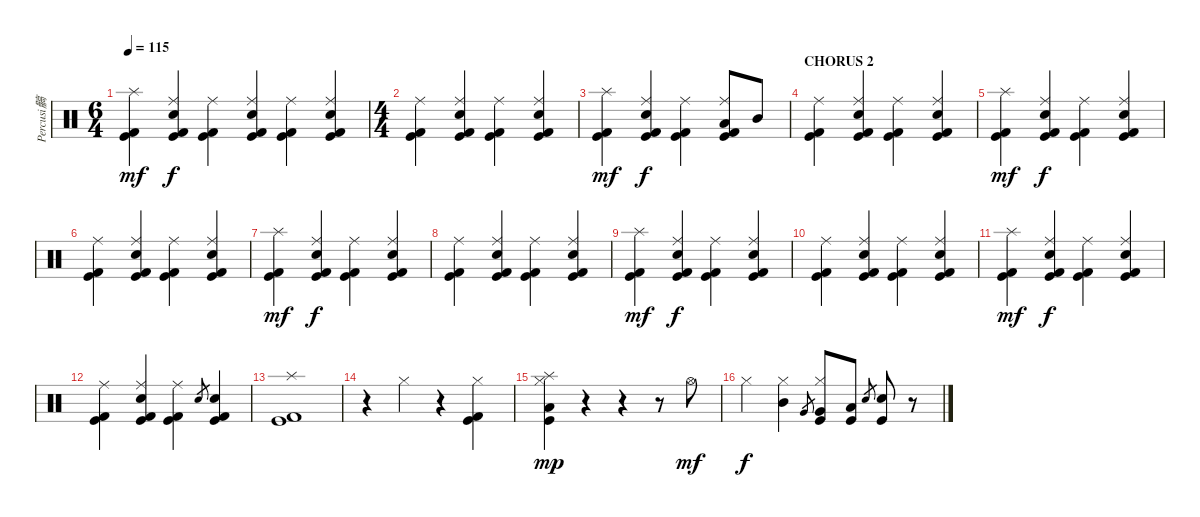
\track ("Percusi髇" "Percusi髇") {instrument percussion}
\staff {score}
\articulation defaults
\ts (6 4)
\tempo 115
\clef neutral
\ks c
("Splash (hit)" "Kick (hit) 2" "Kick (hit)").4{dy mf} ("Ride (middle)" "Electric Snare (hit)" "Kick (hit) 2" "Kick (hit)").4{dy f} ("Ride (middle)" "Kick (hit) 2" "Kick (hit)").4 ("Ride (middle)" "Electric Snare (hit)" "Kick (hit) 2" "Kick (hit)").4 ("Ride (middle)" "Kick (hit) 2" "Kick (hit)").4 ("Ride (middle)" "Electric Snare (hit)" "Kick (hit) 2" "Kick (hit)").4 |
\ts (4 4)
("Ride (middle)" "Kick (hit) 2" "Kick (hit)").4 ("Ride (middle)" "Electric Snare (hit)" "Kick (hit) 2" "Kick (hit)").4 ("Ride (middle)" "Kick (hit) 2" "Kick (hit)").4 ("Ride (middle)" "Electric Snare (hit)" "Kick (hit) 2" "Kick (hit)").4 |
("Splash (hit)" "Kick (hit) 2" "Kick (hit)").4{dy mf} ("Ride (middle)" "Electric Snare (hit)" "Kick (hit) 2" "Kick (hit)").4{dy f} ("Ride (middle)" "Kick (hit) 2" "Kick (hit)").4 ("Ride (middle)" "Low Tom (hit)" "Kick (hit) 2" "Kick (hit)").8 "Mid Tom (hit)".8 |
\section ("" "CHORUS 2")
("Ride (middle)" "Kick (hit) 2" "Kick (hit)").4 ("Ride (middle)" "Electric Snare (hit)" "Kick (hit) 2" "Kick (hit)").4 ("Ride (middle)" "Kick (hit) 2" "Kick (hit)").4 ("Ride (middle)" "Electric Snare (hit)" "Kick (hit) 2" "Kick (hit)").4 |
("Splash (hit)" "Kick (hit) 2" "Kick (hit)").4{dy mf} ("Ride (middle)" "Electric Snare (hit)" "Kick (hit) 2" "Kick (hit)").4{dy f} ("Ride (middle)" "Kick (hit) 2" "Kick (hit)").4 ("Ride (middle)" "Electric Snare (hit)" "Kick (hit) 2" "Kick (hit)").4 |
("Ride (middle)" "Kick (hit) 2" "Kick (hit)").4 ("Ride (middle)" "Electric Snare (hit)" "Kick (hit) 2" "Kick (hit)").4 ("Ride (middle)" "Kick (hit) 2" "Kick (hit)").4 ("Ride (middle)" "Electric Snare (hit)" "Kick (hit) 2" "Kick (hit)").4 |
("Splash (hit)" "Kick (hit) 2" "Kick (hit)").4{dy mf} ("Ride (middle)" "Electric Snare (hit)" "Kick (hit) 2" "Kick (hit)").4{dy f} ("Ride (middle)" "Kick (hit) 2" "Kick (hit)").4 ("Ride (middle)" "Electric Snare (hit)" "Kick (hit) 2" "Kick (hit)").4 |
("Ride (middle)" "Kick (hit) 2" "Kick (hit)").4 ("Ride (middle)" "Electric Snare (hit)" "Kick (hit) 2" "Kick (hit)").4 ("Ride (middle)" "Kick (hit) 2" "Kick (hit)").4 ("Ride (middle)" "Electric Snare (hit)" "Kick (hit) 2" "Kick (hit)").4 |
("Splash (hit)" "Kick (hit) 2" "Kick (hit)").4{dy mf} ("Ride (middle)" "Electric Snare (hit)" "Kick (hit) 2" "Kick (hit)").4{dy f} ("Ride (middle)" "Kick (hit) 2" "Kick (hit)").4 ("Ride (middle)" "Electric Snare (hit)" "Kick (hit) 2" "Kick (hit)").4 |
("Ride (middle)" "Kick (hit) 2" "Kick (hit)").4 ("Ride (middle)" "Electric Snare (hit)" "Kick (hit) 2" "Kick (hit)").4 ("Ride (middle)" "Kick (hit) 2" "Kick (hit)").4 ("Ride (middle)" "Electric Snare (hit)" "Kick (hit) 2" "Kick (hit)").4 |
("Splash (hit)" "Kick (hit) 2" "Kick (hit)").4{dy mf} ("Ride (middle)" "Electric Snare (hit)" "Kick (hit) 2" "Kick (hit)").4{dy f} ("Ride (middle)" "Kick (hit) 2" "Kick (hit)").4 ("Ride (middle)" "Electric Snare (hit)" "Kick (hit) 2" "Kick (hit)").4 |
("Ride (middle)" "Kick (hit) 2" "Kick (hit)").4 ("Ride (middle)" "Electric Snare (hit)" "Kick (hit) 2" "Kick (hit)").4 ("Ride (middle)" "Kick (hit) 2" "Kick (hit)").4 "Electric Snare (hit)".8{gr} ("Electric Snare (hit)" "Kick (hit) 2" "Kick (hit)").4 |
("Splash (hit)" "Kick (hit) 2" "Kick (hit)").1 |
r.4 "Hi-Hat (closed)".4 r.4 ("Hi-Hat (closed)" "Kick (hit) 2" "Kick (hit)").4 |
("Splash (hit)" "Hi-Hat (closed)" "Low Tom (hit)" "Kick (hit)").4{dy mp} r.4 r.4 r.8 "Hi-Hat (open)".8{dy mf} |
"Hi-Hat (closed)".4{dy f} ("Hi-Hat (closed)" "Mid Tom (hit)").4 "Very Low Tom (hit)".8{gr} ("Hi-Hat (closed)" "Very Low Tom (hit)" "Kick (hit)").8 ("Low Tom (hit)" "Kick (hit)").8 "Electric Snare (hit)".8{gr} ("Electric Snare (hit)" "Kick (hit)").8 r.8
